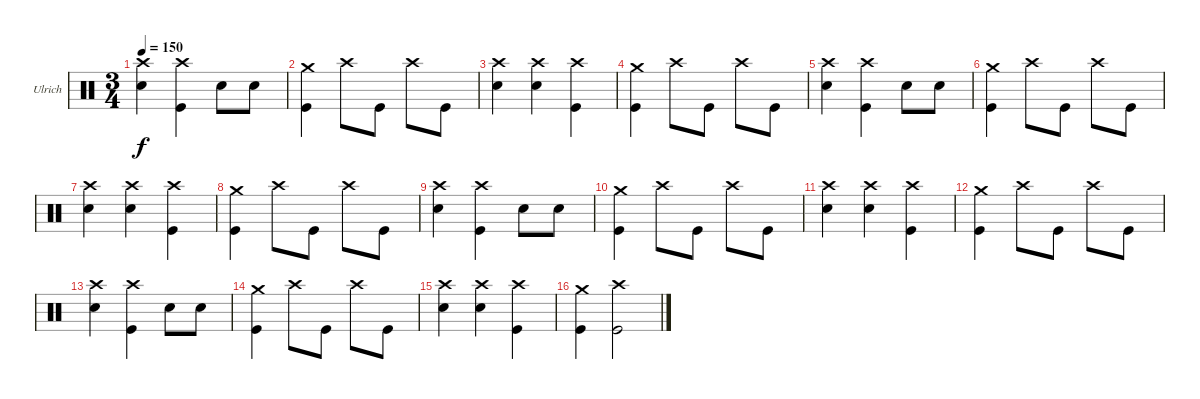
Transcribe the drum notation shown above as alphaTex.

\bracketExtendMode groupsimilarinstruments
\firstSystemTrackNameOrientation horizontal
\otherSystemsTrackNameOrientation horizontal
\track ("Drumkit" "Ulrich") {instrument percussion}
\staff {score}
\articulation defaults
\ts (3 4)
\tempo 150
\clef neutral
\ks c
("Crash high (hit)" "Snare (hit) 2").4{dy f} ("Crash high (hit)" "Kick (hit)").4 "Snare (hit) 2".8 "Snare (hit) 2".8 |
("Crash medium (hit)" "Kick (hit)").4 "Crash high (hit)".8 "Kick (hit)".8 "Crash high (hit)".8 "Kick (hit)".8 |
("Crash high (hit)" "Snare (hit) 2").4 ("Crash high (hit)" "Snare (hit) 2").4 ("Crash high (hit)" "Kick (hit)").4 |
("Crash medium (hit)" "Kick (hit)").4 "Crash high (hit)".8 "Kick (hit)".8 "Crash high (hit)".8 "Kick (hit)".8 |
("Crash high (hit)" "Snare (hit) 2").4 ("Crash high (hit)" "Kick (hit)").4 "Snare (hit) 2".8 "Snare (hit) 2".8 |
("Crash medium (hit)" "Kick (hit)").4 "Crash high (hit)".8 "Kick (hit)".8 "Crash high (hit)".8 "Kick (hit)".8 |
("Crash high (hit)" "Snare (hit) 2").4 ("Crash high (hit)" "Snare (hit) 2").4 ("Crash high (hit)" "Kick (hit)").4 |
("Crash medium (hit)" "Kick (hit)").4 "Crash high (hit)".8 "Kick (hit)".8 "Crash high (hit)".8 "Kick (hit)".8 |
("Crash high (hit)" "Snare (hit) 2").4 ("Crash high (hit)" "Kick (hit)").4 "Snare (hit) 2".8 "Snare (hit) 2".8 |
("Crash medium (hit)" "Kick (hit)").4 "Crash high (hit)".8 "Kick (hit)".8 "Crash high (hit)".8 "Kick (hit)".8 |
("Crash high (hit)" "Snare (hit) 2").4 ("Crash high (hit)" "Snare (hit) 2").4 ("Crash high (hit)" "Kick (hit)").4 |
("Crash medium (hit)" "Kick (hit)").4 "Crash high (hit)".8 "Kick (hit)".8 "Crash high (hit)".8 "Kick (hit)".8 |
("Crash high (hit)" "Snare (hit) 2").4 ("Crash high (hit)" "Kick (hit)").4 "Snare (hit) 2".8 "Snare (hit) 2".8 |
("Crash medium (hit)" "Kick (hit)").4 "Crash high (hit)".8 "Kick (hit)".8 "Crash high (hit)".8 "Kick (hit)".8 |
("Crash high (hit)" "Snare (hit) 2").4 ("Crash high (hit)" "Snare (hit) 2").4 ("Crash high (hit)" "Kick (hit)").4 |
("Crash medium (hit)" "Kick (hit)").4 ("Crash high (hit)" "Kick (hit)").2
